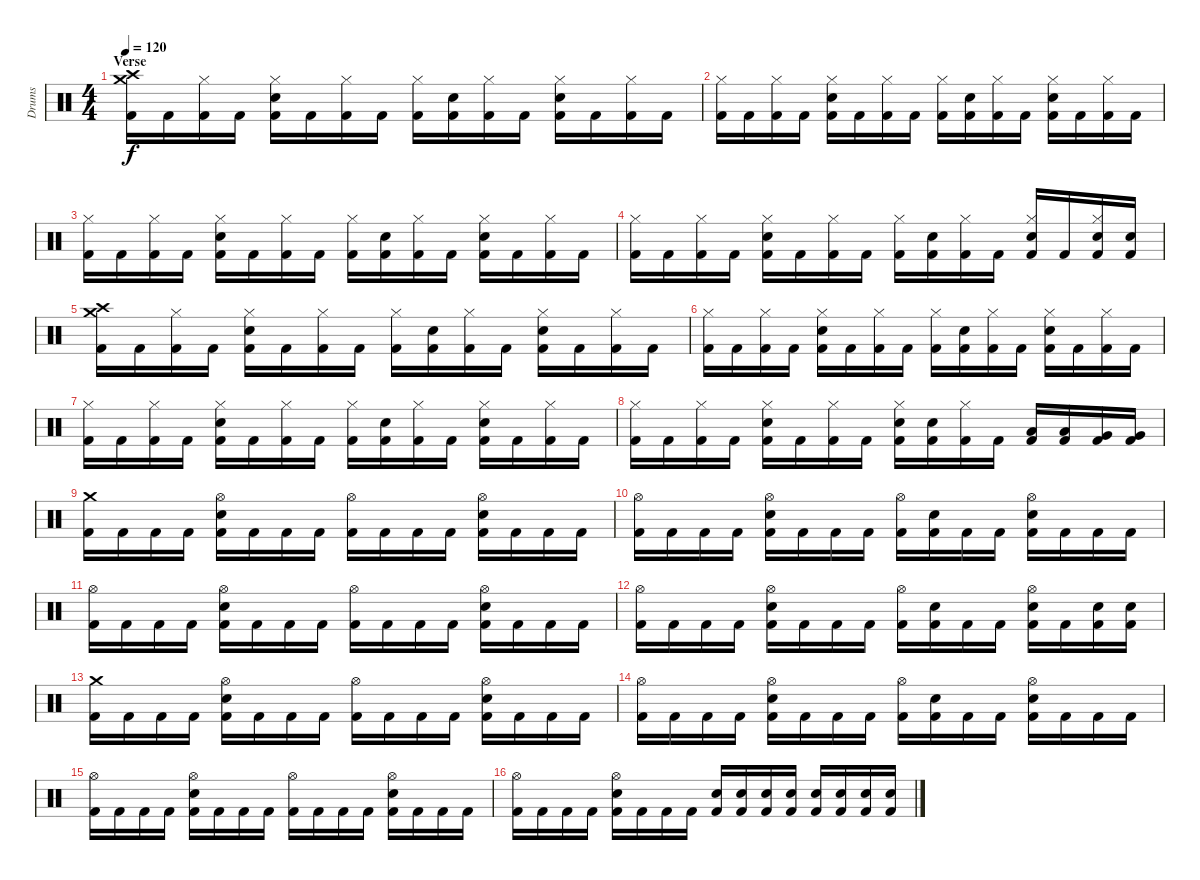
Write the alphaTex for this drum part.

\track ("Drums" "Drums") {instrument percussion}
\staff {score}
\articulation defaults
\ts (4 4)
\section ("" "Verse")
\tempo 120
\clef neutral
\ks c
("Crash medium (hit)" "Crash high (hit)" "Kick (hit) 2").16{dy f} "Kick (hit) 2".16 ("Hi-Hat (closed)" "Kick (hit) 2").16 "Kick (hit) 2".16 ("Hi-Hat (closed)" "Electric Snare (hit)" "Kick (hit) 2").16 "Kick (hit) 2".16 ("Hi-Hat (closed)" "Kick (hit) 2").16 "Kick (hit) 2".16 ("Hi-Hat (closed)" "Kick (hit) 2").16 ("Electric Snare (hit)" "Kick (hit) 2").16 ("Hi-Hat (closed)" "Kick (hit) 2").16 "Kick (hit) 2".16 ("Hi-Hat (closed)" "Electric Snare (hit)" "Kick (hit) 2").16 "Kick (hit) 2".16 ("Hi-Hat (closed)" "Kick (hit) 2").16 "Kick (hit) 2".16 |
("Hi-Hat (closed)" "Kick (hit) 2").16 "Kick (hit) 2".16 ("Hi-Hat (closed)" "Kick (hit) 2").16 "Kick (hit) 2".16 ("Hi-Hat (closed)" "Electric Snare (hit)" "Kick (hit) 2").16 "Kick (hit) 2".16 ("Hi-Hat (closed)" "Kick (hit) 2").16 "Kick (hit) 2".16 ("Hi-Hat (closed)" "Kick (hit) 2").16 ("Electric Snare (hit)" "Kick (hit) 2").16 ("Hi-Hat (closed)" "Kick (hit) 2").16 "Kick (hit) 2".16 ("Hi-Hat (closed)" "Electric Snare (hit)" "Kick (hit) 2").16 "Kick (hit) 2".16 ("Hi-Hat (closed)" "Kick (hit) 2").16 "Kick (hit) 2".16 |
("Hi-Hat (closed)" "Kick (hit) 2").16 "Kick (hit) 2".16 ("Hi-Hat (closed)" "Kick (hit) 2").16 "Kick (hit) 2".16 ("Hi-Hat (closed)" "Electric Snare (hit)" "Kick (hit) 2").16 "Kick (hit) 2".16 ("Hi-Hat (closed)" "Kick (hit) 2").16 "Kick (hit) 2".16 ("Hi-Hat (closed)" "Kick (hit) 2").16 ("Electric Snare (hit)" "Kick (hit) 2").16 ("Hi-Hat (closed)" "Kick (hit) 2").16 "Kick (hit) 2".16 ("Hi-Hat (closed)" "Electric Snare (hit)" "Kick (hit) 2").16 "Kick (hit) 2".16 ("Hi-Hat (closed)" "Kick (hit) 2").16 "Kick (hit) 2".16 |
("Hi-Hat (closed)" "Kick (hit) 2").16 "Kick (hit) 2".16 ("Hi-Hat (closed)" "Kick (hit) 2").16 "Kick (hit) 2".16 ("Hi-Hat (closed)" "Electric Snare (hit)" "Kick (hit) 2").16 "Kick (hit) 2".16 ("Hi-Hat (closed)" "Kick (hit) 2").16 "Kick (hit) 2".16 ("Hi-Hat (closed)" "Kick (hit) 2").16 ("Electric Snare (hit)" "Kick (hit) 2").16 ("Hi-Hat (closed)" "Kick (hit) 2").16 "Kick (hit) 2".16 ("Hi-Hat (closed)" "Electric Snare (hit)" "Kick (hit) 2").16 "Kick (hit) 2".16 ("Hi-Hat (closed)" "Electric Snare (hit)" "Kick (hit) 2").16 ("Electric Snare (hit)" "Kick (hit) 2").16 |
("Crash medium (hit)" "Crash high (hit)" "Kick (hit) 2").16 "Kick (hit) 2".16 ("Hi-Hat (closed)" "Kick (hit) 2").16 "Kick (hit) 2".16 ("Hi-Hat (closed)" "Electric Snare (hit)" "Kick (hit) 2").16 "Kick (hit) 2".16 ("Hi-Hat (closed)" "Kick (hit) 2").16 "Kick (hit) 2".16 ("Hi-Hat (closed)" "Kick (hit) 2").16 ("Electric Snare (hit)" "Kick (hit) 2").16 ("Hi-Hat (closed)" "Kick (hit) 2").16 "Kick (hit) 2".16 ("Hi-Hat (closed)" "Electric Snare (hit)" "Kick (hit) 2").16 "Kick (hit) 2".16 ("Hi-Hat (closed)" "Kick (hit) 2").16 "Kick (hit) 2".16 |
("Hi-Hat (closed)" "Kick (hit) 2").16 "Kick (hit) 2".16 ("Hi-Hat (closed)" "Kick (hit) 2").16 "Kick (hit) 2".16 ("Hi-Hat (closed)" "Electric Snare (hit)" "Kick (hit) 2").16 "Kick (hit) 2".16 ("Hi-Hat (closed)" "Kick (hit) 2").16 "Kick (hit) 2".16 ("Hi-Hat (closed)" "Kick (hit) 2").16 ("Electric Snare (hit)" "Kick (hit) 2").16 ("Hi-Hat (closed)" "Kick (hit) 2").16 "Kick (hit) 2".16 ("Hi-Hat (closed)" "Electric Snare (hit)" "Kick (hit) 2").16 "Kick (hit) 2".16 ("Hi-Hat (closed)" "Kick (hit) 2").16 "Kick (hit) 2".16 |
("Hi-Hat (closed)" "Kick (hit) 2").16 "Kick (hit) 2".16 ("Hi-Hat (closed)" "Kick (hit) 2").16 "Kick (hit) 2".16 ("Hi-Hat (closed)" "Electric Snare (hit)" "Kick (hit) 2").16 "Kick (hit) 2".16 ("Hi-Hat (closed)" "Kick (hit) 2").16 "Kick (hit) 2".16 ("Hi-Hat (closed)" "Kick (hit) 2").16 ("Electric Snare (hit)" "Kick (hit) 2").16 ("Hi-Hat (closed)" "Kick (hit) 2").16 "Kick (hit) 2".16 ("Hi-Hat (closed)" "Electric Snare (hit)" "Kick (hit) 2").16 "Kick (hit) 2".16 ("Hi-Hat (closed)" "Kick (hit) 2").16 "Kick (hit) 2".16 |
("Hi-Hat (closed)" "Kick (hit) 2").16 "Kick (hit) 2".16 ("Hi-Hat (closed)" "Kick (hit) 2").16 "Kick (hit) 2".16 ("Hi-Hat (closed)" "Electric Snare (hit)" "Kick (hit) 2").16 "Kick (hit) 2".16 ("Hi-Hat (closed)" "Kick (hit) 2").16 "Kick (hit) 2".16 ("Hi-Hat (closed)" "Electric Snare (hit)" "Kick (hit) 2").16 ("Electric Snare (hit)" "Kick (hit) 2").16 ("Hi-Hat (closed)" "Kick (hit) 2").16 "Kick (hit) 2".16 ("Low Floor Tom (hit)" "Kick (hit) 2").16 ("Low Floor Tom (hit)" "Kick (hit) 2").16 ("Very Low Tom (hit)" "Kick (hit) 2").16 ("Very Low Tom (hit)" "Kick (hit) 2").16 |
("Crash medium (hit)" "Kick (hit) 2").16 "Kick (hit) 2".16 "Kick (hit) 2".16 "Kick (hit) 2".16 ("Hi-Hat (open)" "Electric Snare (hit)" "Kick (hit) 2").16 "Kick (hit) 2".16 "Kick (hit) 2".16 "Kick (hit) 2".16 ("Hi-Hat (open)" "Kick (hit) 2").16 "Kick (hit) 2".16 "Kick (hit) 2".16 "Kick (hit) 2".16 ("Hi-Hat (open)" "Electric Snare (hit)" "Kick (hit) 2").16 "Kick (hit) 2".16 "Kick (hit) 2".16 "Kick (hit) 2".16 |
("Hi-Hat (open)" "Kick (hit) 2").16 "Kick (hit) 2".16 "Kick (hit) 2".16 "Kick (hit) 2".16 ("Hi-Hat (open)" "Electric Snare (hit)" "Kick (hit) 2").16 "Kick (hit) 2".16 "Kick (hit) 2".16 "Kick (hit) 2".16 ("Hi-Hat (open)" "Kick (hit) 2").16 ("Electric Snare (hit)" "Kick (hit) 2").16 "Kick (hit) 2".16 "Kick (hit) 2".16 ("Hi-Hat (open)" "Electric Snare (hit)" "Kick (hit) 2").16 "Kick (hit) 2".16 "Kick (hit) 2".16 "Kick (hit) 2".16 |
("Hi-Hat (open)" "Kick (hit) 2").16 "Kick (hit) 2".16 "Kick (hit) 2".16 "Kick (hit) 2".16 ("Hi-Hat (open)" "Electric Snare (hit)" "Kick (hit) 2").16 "Kick (hit) 2".16 "Kick (hit) 2".16 "Kick (hit) 2".16 ("Hi-Hat (open)" "Kick (hit) 2").16 "Kick (hit) 2".16 "Kick (hit) 2".16 "Kick (hit) 2".16 ("Hi-Hat (open)" "Electric Snare (hit)" "Kick (hit) 2").16 "Kick (hit) 2".16 "Kick (hit) 2".16 "Kick (hit) 2".16 |
("Hi-Hat (open)" "Kick (hit) 2").16 "Kick (hit) 2".16 "Kick (hit) 2".16 "Kick (hit) 2".16 ("Hi-Hat (open)" "Electric Snare (hit)" "Kick (hit) 2").16 "Kick (hit) 2".16 "Kick (hit) 2".16 "Kick (hit) 2".16 ("Hi-Hat (open)" "Kick (hit) 2").16 ("Electric Snare (hit)" "Kick (hit) 2").16 "Kick (hit) 2".16 "Kick (hit) 2".16 ("Hi-Hat (open)" "Electric Snare (hit)" "Kick (hit) 2").16 "Kick (hit) 2".16 ("Electric Snare (hit)" "Kick (hit) 2").16 ("Electric Snare (hit)" "Kick (hit) 2").16 |
("Crash medium (hit)" "Kick (hit) 2").16 "Kick (hit) 2".16 "Kick (hit) 2".16 "Kick (hit) 2".16 ("Hi-Hat (open)" "Electric Snare (hit)" "Kick (hit) 2").16 "Kick (hit) 2".16 "Kick (hit) 2".16 "Kick (hit) 2".16 ("Hi-Hat (open)" "Kick (hit) 2").16 "Kick (hit) 2".16 "Kick (hit) 2".16 "Kick (hit) 2".16 ("Hi-Hat (open)" "Electric Snare (hit)" "Kick (hit) 2").16 "Kick (hit) 2".16 "Kick (hit) 2".16 "Kick (hit) 2".16 |
("Hi-Hat (open)" "Kick (hit) 2").16 "Kick (hit) 2".16 "Kick (hit) 2".16 "Kick (hit) 2".16 ("Hi-Hat (open)" "Electric Snare (hit)" "Kick (hit) 2").16 "Kick (hit) 2".16 "Kick (hit) 2".16 "Kick (hit) 2".16 ("Hi-Hat (open)" "Kick (hit) 2").16 ("Electric Snare (hit)" "Kick (hit) 2").16 "Kick (hit) 2".16 "Kick (hit) 2".16 ("Hi-Hat (open)" "Electric Snare (hit)" "Kick (hit) 2").16 "Kick (hit) 2".16 "Kick (hit) 2".16 "Kick (hit) 2".16 |
("Hi-Hat (open)" "Kick (hit) 2").16 "Kick (hit) 2".16 "Kick (hit) 2".16 "Kick (hit) 2".16 ("Hi-Hat (open)" "Electric Snare (hit)" "Kick (hit) 2").16 "Kick (hit) 2".16 "Kick (hit) 2".16 "Kick (hit) 2".16 ("Hi-Hat (open)" "Kick (hit) 2").16 "Kick (hit) 2".16 "Kick (hit) 2".16 "Kick (hit) 2".16 ("Hi-Hat (open)" "Electric Snare (hit)" "Kick (hit) 2").16 "Kick (hit) 2".16 "Kick (hit) 2".16 "Kick (hit) 2".16 |
("Hi-Hat (open)" "Kick (hit) 2").16 "Kick (hit) 2".16 "Kick (hit) 2".16 "Kick (hit) 2".16 ("Hi-Hat (open)" "Electric Snare (hit)" "Kick (hit) 2").16 "Kick (hit) 2".16 "Kick (hit) 2".16 "Kick (hit) 2".16 ("Electric Snare (hit)" "Kick (hit) 2").16 ("Electric Snare (hit)" "Kick (hit) 2").16 ("Electric Snare (hit)" "Kick (hit) 2").16 ("Electric Snare (hit)" "Kick (hit) 2").16 ("Electric Snare (hit)" "Kick (hit) 2").16 ("Electric Snare (hit)" "Kick (hit) 2").16 ("Electric Snare (hit)" "Kick (hit) 2").16 ("Electric Snare (hit)" "Kick (hit) 2").16
